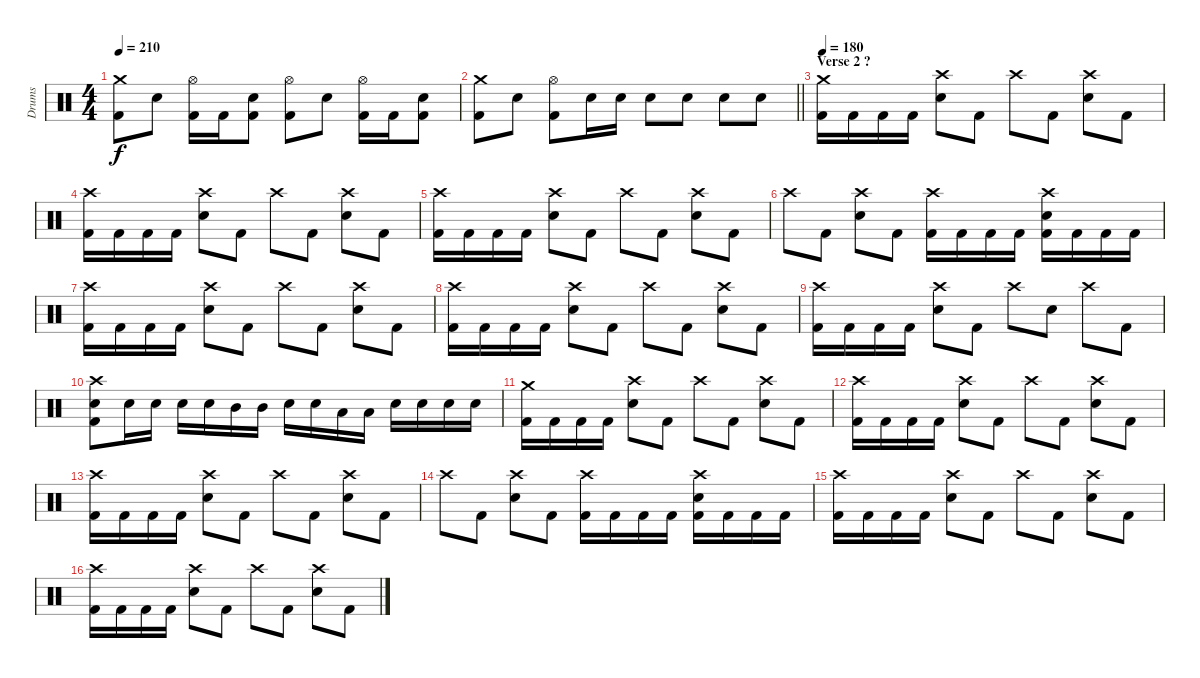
\track ("Drums" "Drums") {instrument percussion}
\staff {score}
\articulation defaults
\ts (4 4)
\tempo 210
\clef neutral
\ks c
("Crash medium (hit)" "Kick (hit) 2").8{dy f} "Electric Snare (hit)".8 ("Hi-Hat (open)" "Kick (hit) 2").16 "Kick (hit) 2".16 ("Electric Snare (hit)" "Kick (hit) 2").8 ("Hi-Hat (open)" "Kick (hit) 2").8 "Electric Snare (hit)".8 ("Hi-Hat (open)" "Kick (hit) 2").16 "Kick (hit) 2".16 ("Electric Snare (hit)" "Kick (hit) 2").8 |
\barLineRight lightlight
("Crash medium (hit)" "Kick (hit) 2").8 "Electric Snare (hit)".8 ("Hi-Hat (open)" "Kick (hit) 2").8 "Electric Snare (hit)".16 "Electric Snare (hit)".16 "Electric Snare (hit)".8 "Electric Snare (hit)".8 "Electric Snare (hit)".8 "Electric Snare (hit)".8 |
\section ("" "Verse 2 ?")
\tempo 180
("Crash medium (hit)" "Kick (hit) 2").16 "Kick (hit) 2".16 "Kick (hit) 2".16 "Kick (hit) 2".16 ("Crash high (hit)" "Electric Snare (hit)").8 "Kick (hit) 2".8 "Crash high (hit)".8 "Kick (hit) 2".8 ("Crash high (hit)" "Electric Snare (hit)").8 "Kick (hit) 2".8 |
("Crash high (hit)" "Kick (hit) 2").16 "Kick (hit) 2".16 "Kick (hit) 2".16 "Kick (hit) 2".16 ("Crash high (hit)" "Electric Snare (hit)").8 "Kick (hit) 2".8 "Crash high (hit)".8 "Kick (hit) 2".8 ("Crash high (hit)" "Electric Snare (hit)").8 "Kick (hit) 2".8 |
("Crash high (hit)" "Kick (hit) 2").16 "Kick (hit) 2".16 "Kick (hit) 2".16 "Kick (hit) 2".16 ("Crash high (hit)" "Electric Snare (hit)").8 "Kick (hit) 2".8 "Crash high (hit)".8 "Kick (hit) 2".8 ("Crash high (hit)" "Electric Snare (hit)").8 "Kick (hit) 2".8 |
"Crash high (hit)".8 "Kick (hit) 2".8 ("Crash high (hit)" "Electric Snare (hit)").8 "Kick (hit) 2".8 ("Crash high (hit)" "Kick (hit) 2").16 "Kick (hit) 2".16 "Kick (hit) 2".16 "Kick (hit) 2".16 ("Crash high (hit)" "Electric Snare (hit)" "Kick (hit) 2").16 "Kick (hit) 2".16 "Kick (hit) 2".16 "Kick (hit) 2".16 |
("Crash high (hit)" "Kick (hit) 2").16 "Kick (hit) 2".16 "Kick (hit) 2".16 "Kick (hit) 2".16 ("Crash high (hit)" "Electric Snare (hit)").8 "Kick (hit) 2".8 "Crash high (hit)".8 "Kick (hit) 2".8 ("Crash high (hit)" "Electric Snare (hit)").8 "Kick (hit) 2".8 |
("Crash high (hit)" "Kick (hit) 2").16 "Kick (hit) 2".16 "Kick (hit) 2".16 "Kick (hit) 2".16 ("Crash high (hit)" "Electric Snare (hit)").8 "Kick (hit) 2".8 "Crash high (hit)".8 "Kick (hit) 2".8 ("Crash high (hit)" "Electric Snare (hit)").8 "Kick (hit) 2".8 |
("Crash high (hit)" "Kick (hit) 2").16 "Kick (hit) 2".16 "Kick (hit) 2".16 "Kick (hit) 2".16 ("Crash high (hit)" "Electric Snare (hit)").8 "Kick (hit) 2".8 "Crash high (hit)".8 "Electric Snare (hit)".8 "Crash high (hit)".8 "Kick (hit) 2".8 |
("Crash high (hit)" "Electric Snare (hit)" "Kick (hit) 2").8 "Electric Snare (hit)".16 "Electric Snare (hit)".16 "Electric Snare (hit)".16 "Electric Snare (hit)".16 "Mid Tom (hit)".16 "Mid Tom (hit)".16 "Electric Snare (hit)".16 "Electric Snare (hit)".16 "Low Tom (hit)".16 "Low Tom (hit)".16 "Electric Snare (hit)".16 "Electric Snare (hit)".16 "Electric Snare (hit)".16 "Electric Snare (hit)".16 |
("Crash medium (hit)" "Kick (hit) 2").16 "Kick (hit) 2".16 "Kick (hit) 2".16 "Kick (hit) 2".16 ("Crash high (hit)" "Electric Snare (hit)").8 "Kick (hit) 2".8 "Crash high (hit)".8 "Kick (hit) 2".8 ("Crash high (hit)" "Electric Snare (hit)").8 "Kick (hit) 2".8 |
("Crash high (hit)" "Kick (hit) 2").16 "Kick (hit) 2".16 "Kick (hit) 2".16 "Kick (hit) 2".16 ("Crash high (hit)" "Electric Snare (hit)").8 "Kick (hit) 2".8 "Crash high (hit)".8 "Kick (hit) 2".8 ("Crash high (hit)" "Electric Snare (hit)").8 "Kick (hit) 2".8 |
("Crash high (hit)" "Kick (hit) 2").16 "Kick (hit) 2".16 "Kick (hit) 2".16 "Kick (hit) 2".16 ("Crash high (hit)" "Electric Snare (hit)").8 "Kick (hit) 2".8 "Crash high (hit)".8 "Kick (hit) 2".8 ("Crash high (hit)" "Electric Snare (hit)").8 "Kick (hit) 2".8 |
"Crash high (hit)".8 "Kick (hit) 2".8 ("Crash high (hit)" "Electric Snare (hit)").8 "Kick (hit) 2".8 ("Crash high (hit)" "Kick (hit) 2").16 "Kick (hit) 2".16 "Kick (hit) 2".16 "Kick (hit) 2".16 ("Crash high (hit)" "Electric Snare (hit)" "Kick (hit) 2").16 "Kick (hit) 2".16 "Kick (hit) 2".16 "Kick (hit) 2".16 |
("Crash high (hit)" "Kick (hit) 2").16 "Kick (hit) 2".16 "Kick (hit) 2".16 "Kick (hit) 2".16 ("Crash high (hit)" "Electric Snare (hit)").8 "Kick (hit) 2".8 "Crash high (hit)".8 "Kick (hit) 2".8 ("Crash high (hit)" "Electric Snare (hit)").8 "Kick (hit) 2".8 |
("Crash high (hit)" "Kick (hit) 2").16 "Kick (hit) 2".16 "Kick (hit) 2".16 "Kick (hit) 2".16 ("Crash high (hit)" "Electric Snare (hit)").8 "Kick (hit) 2".8 "Crash high (hit)".8 "Kick (hit) 2".8 ("Crash high (hit)" "Electric Snare (hit)").8 "Kick (hit) 2".8
